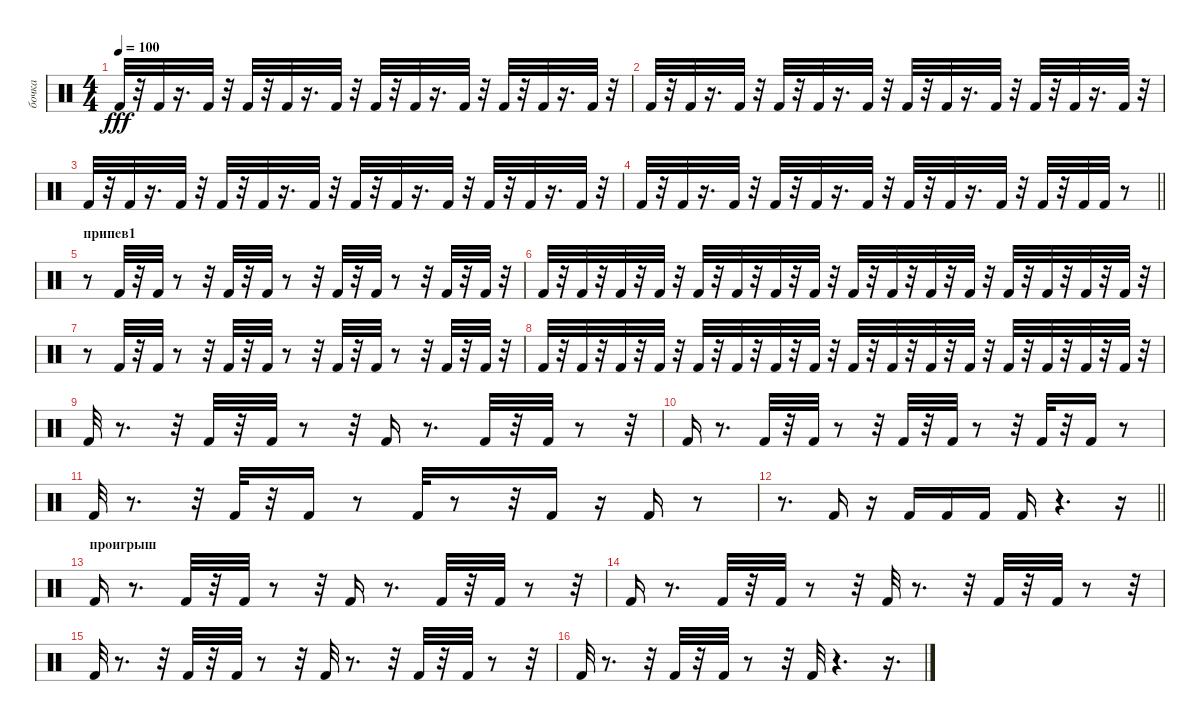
\track ("бочка" "бочка") {instrument percussion}
\staff {score}
\articulation defaults
\ts (4 4)
\tempo 100
\clef neutral
\ks c "Kick (hit) 2".32{dy fff}
r.32 "Kick (hit) 2".32 r.16{d} "Kick (hit) 2".32 r.32 "Kick (hit) 2".32 r.32 "Kick (hit) 2".32 r.16{d} "Kick (hit) 2".32 r.32 "Kick (hit) 2".32 r.32 "Kick (hit) 2".32 r.16{d} "Kick (hit) 2".32 r.32 "Kick (hit) 2".32 r.32 "Kick (hit) 2".32 r.16{d} "Kick (hit) 2".32 r.32 |
"Kick (hit) 2".32 r.32 "Kick (hit) 2".32 r.16{d} "Kick (hit) 2".32 r.32 "Kick (hit) 2".32 r.32 "Kick (hit) 2".32 r.16{d} "Kick (hit) 2".32 r.32 "Kick (hit) 2".32 r.32 "Kick (hit) 2".32 r.16{d} "Kick (hit) 2".32 r.32 "Kick (hit) 2".32 r.32 "Kick (hit) 2".32 r.16{d} "Kick (hit) 2".32 r.32 |
"Kick (hit) 2".32 r.32 "Kick (hit) 2".32 r.16{d} "Kick (hit) 2".32 r.32 "Kick (hit) 2".32 r.32 "Kick (hit) 2".32 r.16{d} "Kick (hit) 2".32 r.32 "Kick (hit) 2".32 r.32 "Kick (hit) 2".32 r.16{d} "Kick (hit) 2".32 r.32 "Kick (hit) 2".32 r.32 "Kick (hit) 2".32 r.16{d} "Kick (hit) 2".32 r.32 |
\barLineRight lightlight "Kick (hit) 2".32
r.32 "Kick (hit) 2".32 r.16{d} "Kick (hit) 2".32 r.32 "Kick (hit) 2".32 r.32 "Kick (hit) 2".32 r.16{d} "Kick (hit) 2".32 r.32 "Kick (hit) 2".32 r.32 "Kick (hit) 2".32 r.16{d} "Kick (hit) 2".32 r.32 "Kick (hit) 2".32 r.32 "Kick (hit) 2".32 "Kick (hit) 2".32 r.8 |
\section ("" "припев1")
r.8 "Kick (hit) 2".32 r.32 "Kick (hit) 2".32 r.8 r.32 "Kick (hit) 2".32 r.32 "Kick (hit) 2".32 r.8 r.32 "Kick (hit) 2".32 r.32 "Kick (hit) 2".32 r.8 r.32 "Kick (hit) 2".32 r.32 "Kick (hit) 2".32 r.32 |
"Kick (hit) 2".32 r.32 "Kick (hit) 2".32 r.32 "Kick (hit) 2".32 r.32 "Kick (hit) 2".32 r.32 "Kick (hit) 2".32 r.32 "Kick (hit) 2".32 r.32 "Kick (hit) 2".32 r.32 "Kick (hit) 2".32 r.32 "Kick (hit) 2".32 r.32 "Kick (hit) 2".32 r.32 "Kick (hit) 2".32 r.32 "Kick (hit) 2".32 r.32 "Kick (hit) 2".32 r.32 "Kick (hit) 2".32 r.32 "Kick (hit) 2".32 r.32 "Kick (hit) 2".32 r.32 |
r.8 "Kick (hit) 2".32 r.32 "Kick (hit) 2".32 r.8 r.32 "Kick (hit) 2".32 r.32 "Kick (hit) 2".32 r.8 r.32 "Kick (hit) 2".32 r.32 "Kick (hit) 2".32 r.8 r.32 "Kick (hit) 2".32 r.32 "Kick (hit) 2".32 r.32 |
"Kick (hit) 2".32 r.32 "Kick (hit) 2".32 r.32 "Kick (hit) 2".32 r.32 "Kick (hit) 2".32 r.32 "Kick (hit) 2".32 r.32 "Kick (hit) 2".32 r.32 "Kick (hit) 2".32 r.32 "Kick (hit) 2".32 r.32 "Kick (hit) 2".32 r.32 "Kick (hit) 2".32 r.32 "Kick (hit) 2".32 r.32 "Kick (hit) 2".32 r.32 "Kick (hit) 2".32 r.32 "Kick (hit) 2".32 r.32 "Kick (hit) 2".32 r.32 "Kick (hit) 2".32 r.32 |
"Kick (hit) 2".32 r.8{d} r.32 "Kick (hit) 2".32 r.32 "Kick (hit) 2".32 r.8 r.32 "Kick (hit) 2".16 r.8{d} "Kick (hit) 2".32 r.32 "Kick (hit) 2".32 r.8 r.32 |
"Kick (hit) 2".16 r.8{d} "Kick (hit) 2".32 r.32 "Kick (hit) 2".32 r.8 r.32 "Kick (hit) 2".32 r.32 "Kick (hit) 2".32 r.8 r.32 "Kick (hit) 2".32 r.32 "Kick (hit) 2".16 r.8 |
"Kick (hit) 2".32 r.8{d} r.32 "Kick (hit) 2".32 r.32 "Kick (hit) 2".16 r.8 "Kick (hit) 2".32 r.8 r.32 "Kick (hit) 2".16 r.16 "Kick (hit) 2".16 r.8 |
\barLineRight lightlight
r.8{d} "Kick (hit) 2".16 r.16 "Kick (hit) 2".16 "Kick (hit) 2".16 "Kick (hit) 2".16 "Kick (hit) 2".16 r.4{d} r.16 |
\section ("" "проигрыш")
"Kick (hit) 2".16 r.8{d} "Kick (hit) 2".32 r.32 "Kick (hit) 2".32 r.8 r.32 "Kick (hit) 2".16 r.8{d} "Kick (hit) 2".32 r.32 "Kick (hit) 2".32 r.8 r.32 |
"Kick (hit) 2".16 r.8{d} "Kick (hit) 2".32 r.32 "Kick (hit) 2".32 r.8 r.32 "Kick (hit) 2".32 r.8{d} r.32 "Kick (hit) 2".32 r.32 "Kick (hit) 2".32 r.8 r.32 |
"Kick (hit) 2".32 r.8{d} r.32 "Kick (hit) 2".32 r.32 "Kick (hit) 2".32 r.8 r.32 "Kick (hit) 2".32 r.8{d} r.32 "Kick (hit) 2".32 r.32 "Kick (hit) 2".32 r.8 r.32 |
"Kick (hit) 2".32 r.8{d} r.32 "Kick (hit) 2".32 r.32 "Kick (hit) 2".32 r.8 r.32 "Kick (hit) 2".32 r.4{d} r.16{d}
